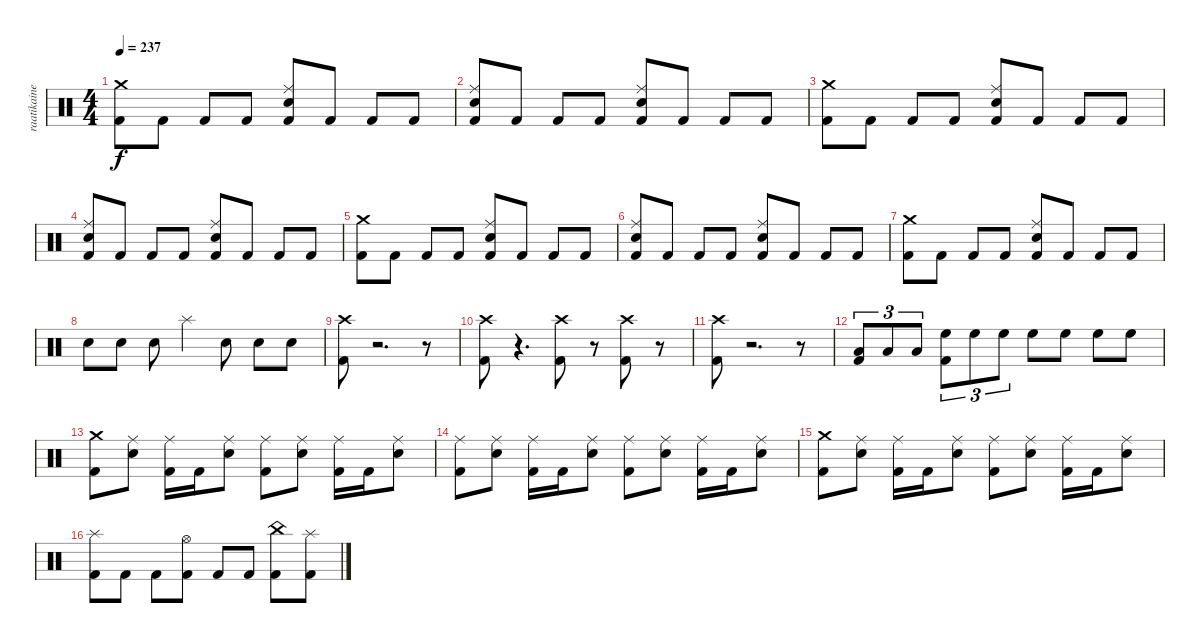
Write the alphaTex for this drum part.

\track ("raatikainen" "raatikaine") {instrument percussion}
\staff {score}
\articulation defaults
\ts (4 4)
\tempo 237
\clef neutral
\ks c
("Crash medium (hit)" "Kick (hit) 2").8{dy f} "Kick (hit) 2".8 "Kick (hit) 2".8 "Kick (hit) 2".8 ("Ride (middle)" "Electric Snare (hit)" "Kick (hit) 2").8 "Kick (hit) 2".8 "Kick (hit) 2".8 "Kick (hit) 2".8 |
("Ride (middle)" "Electric Snare (hit)" "Kick (hit) 2").8 "Kick (hit) 2".8 "Kick (hit) 2".8 "Kick (hit) 2".8 ("Ride (middle)" "Electric Snare (hit)" "Kick (hit) 2").8 "Kick (hit) 2".8 "Kick (hit) 2".8 "Kick (hit) 2".8 |
("Crash medium (hit)" "Kick (hit) 2").8 "Kick (hit) 2".8 "Kick (hit) 2".8 "Kick (hit) 2".8 ("Ride (middle)" "Electric Snare (hit)" "Kick (hit) 2").8 "Kick (hit) 2".8 "Kick (hit) 2".8 "Kick (hit) 2".8 |
("Ride (middle)" "Electric Snare (hit)" "Kick (hit) 2").8 "Kick (hit) 2".8 "Kick (hit) 2".8 "Kick (hit) 2".8 ("Ride (middle)" "Electric Snare (hit)" "Kick (hit) 2").8 "Kick (hit) 2".8 "Kick (hit) 2".8 "Kick (hit) 2".8 |
("Crash medium (hit)" "Kick (hit) 2").8 "Kick (hit) 2".8 "Kick (hit) 2".8 "Kick (hit) 2".8 ("Ride (middle)" "Electric Snare (hit)" "Kick (hit) 2").8 "Kick (hit) 2".8 "Kick (hit) 2".8 "Kick (hit) 2".8 |
("Ride (middle)" "Electric Snare (hit)" "Kick (hit) 2").8 "Kick (hit) 2".8 "Kick (hit) 2".8 "Kick (hit) 2".8 ("Ride (middle)" "Electric Snare (hit)" "Kick (hit) 2").8 "Kick (hit) 2".8 "Kick (hit) 2".8 "Kick (hit) 2".8 |
("Crash medium (hit)" "Kick (hit) 2").8 "Kick (hit) 2".8 "Kick (hit) 2".8 "Kick (hit) 2".8 ("Ride (middle)" "Electric Snare (hit)" "Kick (hit) 2").8 "Kick (hit) 2".8 "Kick (hit) 2".8 "Kick (hit) 2".8 |
"Electric Snare (hit)".8 "Electric Snare (hit)".8 "Electric Snare (hit)".8 "Splash (hit)".4 "Electric Snare (hit)".8 "Electric Snare (hit)".8 "Electric Snare (hit)".8 |
("Crash high (hit)" "Kick (hit) 2").8 r.2{d} r.8 |
("Crash high (hit)" "Kick (hit) 2").8 r.4{d} ("Crash high (hit)" "Kick (hit) 2").8 r.8 ("Crash high (hit)" "Kick (hit) 2").8 r.8 |
("Crash high (hit)" "Kick (hit) 2").8 r.2{d} r.8 |
("Low Tom (hit)" "Kick (hit) 2").8{tu (3 2)} "Low Tom (hit)".8{tu (3 2)} "Low Tom (hit)".8{tu (3 2)} ("High Floor Tom (hit)" "Kick (hit) 2").8{tu (3 2)} "High Floor Tom (hit)".8{tu (3 2)} "High Floor Tom (hit)".8{tu (3 2)} "High Floor Tom (hit)".8 "High Floor Tom (hit)".8 "High Floor Tom (hit)".8 "High Floor Tom (hit)".8 |
("Crash medium (hit)" "Kick (hit) 2").8 ("Ride (middle)" "Snare (hit) 2").8 ("Ride (middle)" "Kick (hit) 2").16 "Kick (hit) 2".16 ("Ride (middle)" "Snare (hit) 2").8 ("Ride (middle)" "Kick (hit) 2").8 ("Ride (middle)" "Snare (hit) 2").8 ("Ride (middle)" "Kick (hit) 2").16 "Kick (hit) 2".16 ("Ride (middle)" "Snare (hit) 2").8{txt ""} |
("Ride (middle)" "Kick (hit) 2").8 ("Ride (middle)" "Snare (hit) 2").8 ("Ride (middle)" "Kick (hit) 2").16 "Kick (hit) 2".16 ("Ride (middle)" "Snare (hit) 2").8 ("Ride (middle)" "Kick (hit) 2").8 ("Ride (middle)" "Snare (hit) 2").8 ("Ride (middle)" "Kick (hit) 2").16 "Kick (hit) 2".16 ("Ride (middle)" "Snare (hit) 2").8 |
("Crash medium (hit)" "Kick (hit) 2").8 ("Ride (middle)" "Snare (hit) 2").8 ("Ride (middle)" "Kick (hit) 2").16 "Kick (hit) 2".16 ("Ride (middle)" "Snare (hit) 2").8 ("Ride (middle)" "Kick (hit) 2").8 ("Ride (middle)" "Snare (hit) 2").8 ("Ride (middle)" "Kick (hit) 2").16 "Kick (hit) 2".16 ("Ride (middle)" "Snare (hit) 2").8 |
("Splash (hit)" "Kick (hit) 2").8 "Kick (hit) 2".8 "Kick (hit) 2".8 ("Hi-Hat (open)" "Kick (hit) 2").8 "Kick (hit) 2".8 "Kick (hit) 2".8 ("China (hit)" "Kick (hit) 2").8 ("Splash (hit)" "Kick (hit) 2").8
